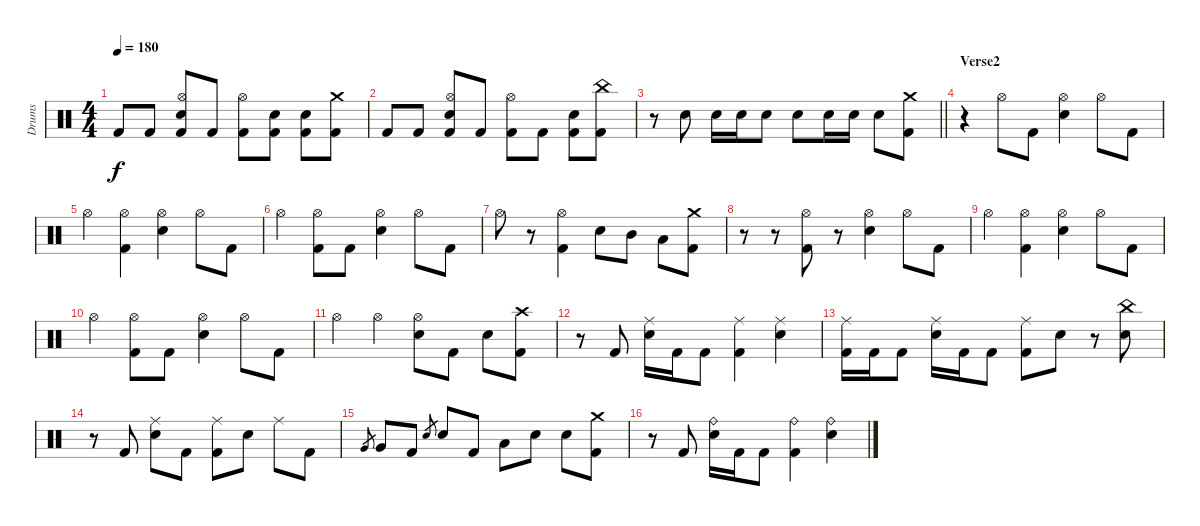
\track ("Drums" "Drums") {instrument percussion}
\staff {score}
\articulation defaults
\ts (4 4)
\tempo 180
\clef neutral
\ks c "Kick (hit) 2".8{dy f} "Kick (hit) 2".8
("Hi-Hat (open)" "Electric Snare (hit)" "Kick (hit) 2").8 "Kick (hit) 2".8 ("Hi-Hat (open)" "Kick (hit) 2").8 ("Electric Snare (hit)" "Kick (hit) 2").8 ("Electric Snare (hit)" "Kick (hit) 2").8 ("Crash medium (hit)" "Kick (hit) 2").8 |
"Kick (hit) 2".8 "Kick (hit) 2".8 ("Hi-Hat (open)" "Electric Snare (hit)" "Kick (hit) 2").8 "Kick (hit) 2".8 ("Hi-Hat (open)" "Kick (hit) 2").8 "Kick (hit) 2".8 ("Electric Snare (hit)" "Kick (hit) 2").8 ("China (hit)" "Kick (hit) 2").8 |
\barLineRight lightlight
r.8 "Electric Snare (hit)".8 "Electric Snare (hit)".16 "Electric Snare (hit)".16 "Electric Snare (hit)".8 "Electric Snare (hit)".8 "Electric Snare (hit)".16 "Electric Snare (hit)".16 "Electric Snare (hit)".8 ("Crash medium (hit)" "Kick (hit) 2").8 |
\section ("" "Verse2")
r.4 "Hi-Hat (open)".8 "Kick (hit) 2".8 ("Hi-Hat (open)" "Electric Snare (hit)").4 "Hi-Hat (open)".8 "Kick (hit) 2".8 |
"Hi-Hat (open)".4 ("Hi-Hat (open)" "Kick (hit) 2").4 ("Hi-Hat (open)" "Electric Snare (hit)").4 "Hi-Hat (open)".8 "Kick (hit) 2".8 |
"Hi-Hat (open)".4 ("Hi-Hat (open)" "Kick (hit) 2").8 "Kick (hit) 2".8 ("Hi-Hat (open)" "Electric Snare (hit)").4 "Hi-Hat (open)".8 "Kick (hit) 2".8 |
"Hi-Hat (open)".8 r.8 ("Hi-Hat (open)" "Kick (hit) 2").4 "Electric Snare (hit)".8 "Mid Tom (hit)".8 "Low Tom (hit)".8 ("Crash medium (hit)" "Kick (hit) 2").8 |
r.8 r.8 ("Hi-Hat (open)" "Kick (hit) 2").8 r.8 ("Hi-Hat (open)" "Electric Snare (hit)").4 "Hi-Hat (open)".8 "Kick (hit) 2".8 |
"Hi-Hat (open)".4 ("Hi-Hat (open)" "Kick (hit) 2").4 ("Hi-Hat (open)" "Electric Snare (hit)").4 "Hi-Hat (open)".8 "Kick (hit) 2".8 |
"Hi-Hat (open)".4 ("Hi-Hat (open)" "Kick (hit) 2").8 "Kick (hit) 2".8 ("Hi-Hat (open)" "Electric Snare (hit)").4 "Hi-Hat (open)".8 "Kick (hit) 2".8 |
"Hi-Hat (open)".4 "Hi-Hat (open)".4 ("Hi-Hat (open)" "Electric Snare (hit)").8 "Kick (hit) 2".8 "Electric Snare (hit)".8 ("Crash high (hit)" "Kick (hit) 2").8 |
r.8 "Kick (hit) 2".8 ("Ride (middle)" "Electric Snare (hit)").16 "Kick (hit) 2".16 "Kick (hit) 2".8 ("Ride (middle)" "Kick (hit) 2").4 ("Ride (middle)" "Electric Snare (hit)").4 |
("Ride (middle)" "Kick (hit) 2").16 "Kick (hit) 2".16 "Kick (hit) 2".8 ("Ride (middle)" "Electric Snare (hit)").16 "Kick (hit) 2".16 "Kick (hit) 2".8 ("Ride (middle)" "Kick (hit) 2").8 "Electric Snare (hit)".8 r.8 ("China (hit)" "Electric Snare (hit)").8 |
r.8 "Kick (hit) 2".8 ("Ride (middle)" "Electric Snare (hit)").8 "Kick (hit) 2".8 ("Ride (middle)" "Kick (hit) 2").8 "Electric Snare (hit)".8 "Ride (middle)".8 "Kick (hit) 2".8 |
"Very Low Tom (hit)".8{gr} "Very Low Tom (hit)".8 "Kick (hit) 2".8 "Electric Snare (hit)".8{gr} "Electric Snare (hit)".8 "Kick (hit) 2".8 "Low Tom (hit)".8 "Electric Snare (hit)".8 "Electric Snare (hit)".8 ("Crash medium (hit)" "Kick (hit) 2").8 |
r.8 "Kick (hit) 2".8 ("Ride (bell)" "Electric Snare (hit)").16 "Kick (hit) 2".16 "Kick (hit) 2".8 ("Ride (bell)" "Kick (hit) 2").4 ("Ride (bell)" "Electric Snare (hit)").4
